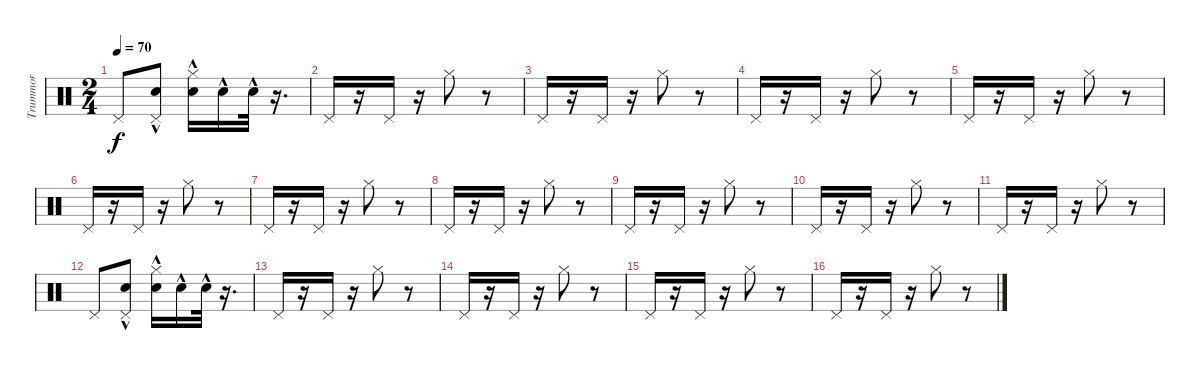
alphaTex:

\track ("Trummor" "Trummor") {instrument percussion}
\staff {score}
\articulation defaults
\ts (2 4)
\tempo 70
\clef neutral
\ks c "Pedal Hi-Hat (hit)".8{dy f}
("Pedal Hi-Hat (hit)" "Snare (hit) 2"{hac}).8 ("Hi-Hat (closed)" "Snare (hit) 2"{hac}).16 "Snare (hit) 2"{hac}.16 "Snare (hit) 2"{hac}.32 r.16{d} |
"Pedal Hi-Hat (hit)".16 r.16 "Pedal Hi-Hat (hit)".16 r.16 "Hi-Hat (closed)".8 r.8 |
"Pedal Hi-Hat (hit)".16 r.16 "Pedal Hi-Hat (hit)".16 r.16 "Hi-Hat (closed)".8 r.8 |
"Pedal Hi-Hat (hit)".16 r.16 "Pedal Hi-Hat (hit)".16 r.16 "Hi-Hat (closed)".8 r.8 |
"Pedal Hi-Hat (hit)".16 r.16 "Pedal Hi-Hat (hit)".16 r.16 "Hi-Hat (closed)".8 r.8 |
"Pedal Hi-Hat (hit)".16 r.16 "Pedal Hi-Hat (hit)".16 r.16 "Hi-Hat (closed)".8 r.8 |
"Pedal Hi-Hat (hit)".16 r.16 "Pedal Hi-Hat (hit)".16 r.16 "Hi-Hat (closed)".8 r.8 |
"Pedal Hi-Hat (hit)".16 r.16 "Pedal Hi-Hat (hit)".16 r.16 "Hi-Hat (closed)".8 r.8 |
"Pedal Hi-Hat (hit)".16 r.16 "Pedal Hi-Hat (hit)".16 r.16 "Hi-Hat (closed)".8 r.8 |
"Pedal Hi-Hat (hit)".16 r.16 "Pedal Hi-Hat (hit)".16 r.16 "Hi-Hat (closed)".8 r.8 |
"Pedal Hi-Hat (hit)".16 r.16 "Pedal Hi-Hat (hit)".16 r.16 "Hi-Hat (closed)".8 r.8 |
"Pedal Hi-Hat (hit)".8 ("Pedal Hi-Hat (hit)" "Snare (hit) 2"{hac}).8 ("Hi-Hat (closed)" "Snare (hit) 2"{hac}).16 "Snare (hit) 2"{hac}.16 "Snare (hit) 2"{hac}.32 r.16{d} |
"Pedal Hi-Hat (hit)".16 r.16 "Pedal Hi-Hat (hit)".16 r.16 "Hi-Hat (closed)".8 r.8 |
"Pedal Hi-Hat (hit)".16 r.16 "Pedal Hi-Hat (hit)".16 r.16 "Hi-Hat (closed)".8 r.8 |
"Pedal Hi-Hat (hit)".16 r.16 "Pedal Hi-Hat (hit)".16 r.16 "Hi-Hat (closed)".8 r.8 |
"Pedal Hi-Hat (hit)".16 r.16 "Pedal Hi-Hat (hit)".16 r.16 "Hi-Hat (closed)".8 r.8
